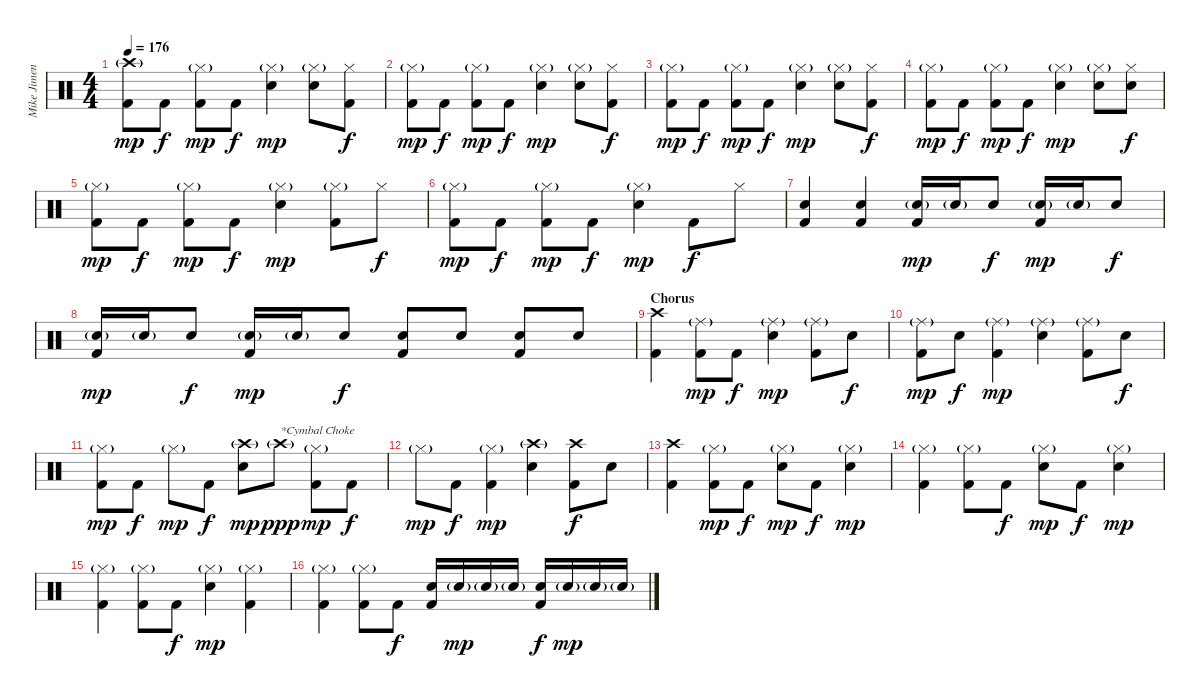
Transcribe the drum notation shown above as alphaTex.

\track ("Mike Jimenez" "Mike Jimen") {instrument percussion}
\staff {score}
\articulation defaults
\ts (4 4)
\tempo 176
\clef neutral
\ks c
("Crash high (hit)"{g} "Kick (hit) 2").8{dy mp} "Kick (hit) 2".8{dy f} ("Hi-Hat (closed)"{g} "Kick (hit) 2").8{dy mp} "Kick (hit) 2".8{dy f} ("Hi-Hat (closed)"{g} "Electric Snare (hit)").4{dy mp} ("Hi-Hat (closed)"{g} "Electric Snare (hit)").8 ("Hi-Hat (closed)" "Kick (hit) 2").8{dy f} |
("Hi-Hat (closed)"{g} "Kick (hit) 2").8{dy mp} "Kick (hit) 2".8{dy f} ("Hi-Hat (closed)"{g} "Kick (hit) 2").8{dy mp} "Kick (hit) 2".8{dy f} ("Hi-Hat (closed)"{g} "Electric Snare (hit)").4{dy mp} ("Hi-Hat (closed)"{g} "Electric Snare (hit)").8 ("Hi-Hat (closed)" "Kick (hit) 2").8{dy f} |
("Hi-Hat (closed)"{g} "Kick (hit) 2").8{dy mp} "Kick (hit) 2".8{dy f} ("Hi-Hat (closed)"{g} "Kick (hit) 2").8{dy mp} "Kick (hit) 2".8{dy f} ("Hi-Hat (closed)"{g} "Electric Snare (hit)").4{dy mp} ("Hi-Hat (closed)"{g} "Electric Snare (hit)").8 ("Hi-Hat (closed)" "Kick (hit) 2").8{dy f} |
("Hi-Hat (closed)"{g} "Kick (hit) 2").8{dy mp} "Kick (hit) 2".8{dy f} ("Hi-Hat (closed)"{g} "Kick (hit) 2").8{dy mp} "Kick (hit) 2".8{dy f} ("Hi-Hat (closed)"{g} "Electric Snare (hit)").4{dy mp} ("Hi-Hat (closed)"{g} "Electric Snare (hit)").8 ("Hi-Hat (closed)" "Electric Snare (hit)").8{dy f} |
("Hi-Hat (closed)"{g} "Kick (hit) 2").8{dy mp} "Kick (hit) 2".8{dy f} ("Hi-Hat (closed)"{g} "Kick (hit) 2").8{dy mp} "Kick (hit) 2".8{dy f} ("Hi-Hat (closed)"{g} "Electric Snare (hit)").4{dy mp} ("Hi-Hat (closed)"{g} "Kick (hit) 2").8 "Hi-Hat (closed)".8{dy f} |
("Hi-Hat (closed)"{g} "Kick (hit) 2").8{dy mp} "Kick (hit) 2".8{dy f} ("Hi-Hat (closed)"{g} "Kick (hit) 2").8{dy mp} "Kick (hit) 2".8{dy f} ("Hi-Hat (closed)"{g} "Electric Snare (hit)").4{dy mp} "Kick (hit) 2".8{dy f} "Hi-Hat (closed)".8 |
("Electric Snare (hit)" "Kick (hit) 2").4 ("Electric Snare (hit)" "Kick (hit) 2").4 ("Electric Snare (hit)"{g} "Kick (hit) 2").16{dy mp} "Electric Snare (hit)"{g}.16 "Electric Snare (hit)".8{dy f} ("Electric Snare (hit)"{g} "Kick (hit) 2").16{dy mp} "Electric Snare (hit)"{g}.16 "Electric Snare (hit)".8{dy f} |
("Electric Snare (hit)"{g} "Kick (hit) 2").16{dy mp} "Electric Snare (hit)"{g}.16 "Electric Snare (hit)".8{dy f} ("Electric Snare (hit)"{g} "Kick (hit) 2").16{dy mp} "Electric Snare (hit)"{g}.16 "Electric Snare (hit)".8{dy f} ("Electric Snare (hit)" "Kick (hit) 2").8 "Electric Snare (hit)".8 ("Electric Snare (hit)" "Kick (hit) 2").8 "Electric Snare (hit)".8 |
\section ("" "Chorus")
("Crash high (hit)" "Kick (hit) 2").4 ("Ride (middle)"{g} "Kick (hit) 2").8{dy mp} "Kick (hit) 2".8{dy f} ("Ride (middle)"{g} "Electric Snare (hit)").4{dy mp} ("Ride (middle)"{g} "Kick (hit) 2").8 "Electric Snare (hit)".8{dy f} |
("Ride (middle)"{g} "Kick (hit) 2").8{dy mp} "Electric Snare (hit)".8{dy f} ("Ride (middle)"{g} "Kick (hit) 2").4{dy mp} ("Ride (middle)"{g} "Electric Snare (hit)").4 ("Ride (middle)"{g} "Kick (hit) 2").8 "Electric Snare (hit)".8{dy f} |
("Hi-Hat (closed)"{g} "Kick (hit) 2").8{dy mp} "Kick (hit) 2".8{dy f} "Hi-Hat (closed)"{g}.8{dy mp} "Kick (hit) 2".8{dy f} ("Crash high (hit)"{g} "Electric Snare (hit)").8{dy mp} "Crash high (hit)"{g}.8{txt "*Cymbal Choke" dy ppp} ("Hi-Hat (closed)"{g} "Kick (hit) 2").8{dy mp} "Kick (hit) 2".8{dy f} |
"Hi-Hat (closed)"{g}.8{dy mp} "Kick (hit) 2".8{dy f} ("Hi-Hat (closed)"{g} "Kick (hit) 2").4{dy mp} ("Crash high (hit)"{g} "Electric Snare (hit)").4 ("Crash high (hit)" "Kick (hit) 2").8{dy f} "Electric Snare (hit)".8 |
("Crash high (hit)" "Kick (hit) 2").4 ("Hi-Hat (closed)"{g} "Kick (hit) 2").8{dy mp} "Kick (hit) 2".8{dy f} ("Hi-Hat (closed)"{g} "Electric Snare (hit)").8{dy mp} "Kick (hit) 2".8{dy f} ("Hi-Hat (closed)"{g} "Electric Snare (hit)").4{dy mp} |
("Hi-Hat (closed)"{g} "Kick (hit) 2").4 ("Hi-Hat (closed)"{g} "Kick (hit) 2").8 "Kick (hit) 2".8{dy f} ("Hi-Hat (closed)"{g} "Electric Snare (hit)").8{dy mp} "Kick (hit) 2".8{dy f} ("Hi-Hat (closed)"{g} "Electric Snare (hit)").4{dy mp} |
("Hi-Hat (closed)"{g} "Kick (hit) 2").4 ("Hi-Hat (closed)"{g} "Kick (hit) 2").8 "Kick (hit) 2".8{dy f} ("Hi-Hat (closed)"{g} "Electric Snare (hit)").4{dy mp} ("Hi-Hat (closed)"{g} "Kick (hit) 2").4 |
("Hi-Hat (closed)"{g} "Kick (hit) 2").4 ("Hi-Hat (closed)"{g} "Kick (hit) 2").8 "Kick (hit) 2".8{dy f} ("Electric Snare (hit)" "Kick (hit) 2").16 "Electric Snare (hit)"{g}.16{dy mp} "Electric Snare (hit)"{g}.16 "Electric Snare (hit)"{g}.16 ("Electric Snare (hit)" "Kick (hit) 2").16{dy f} "Electric Snare (hit)"{g}.16{dy mp} "Electric Snare (hit)"{g}.16 "Electric Snare (hit)"{g}.16
